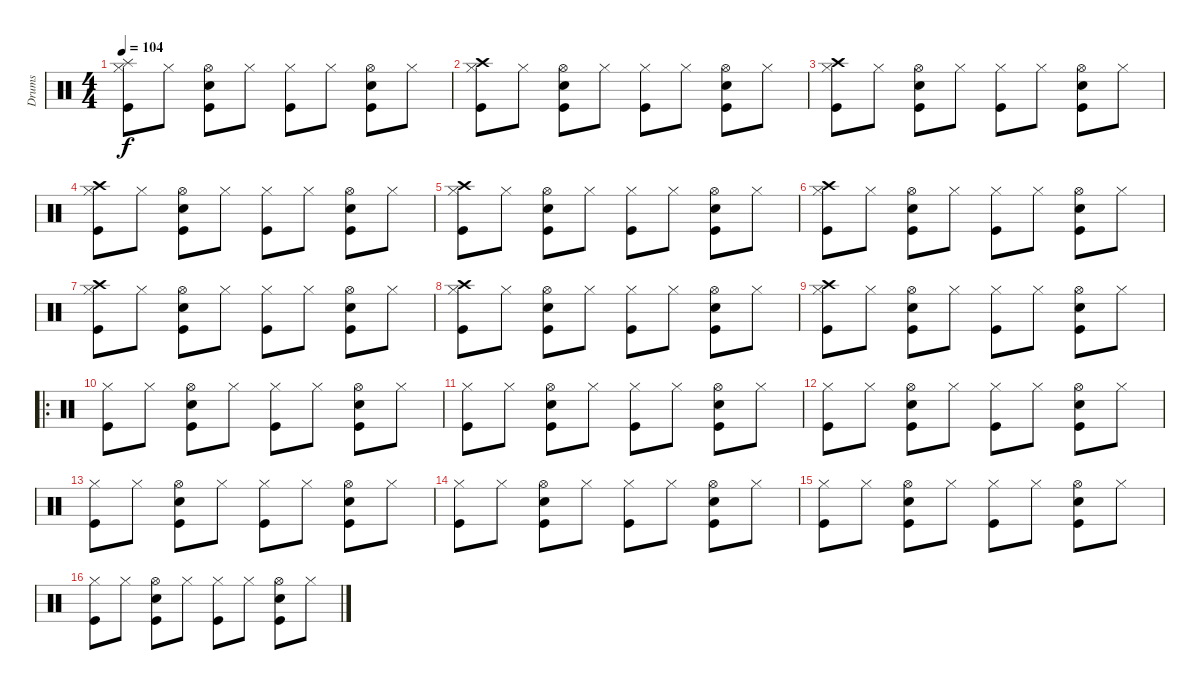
\track ("Drums" "Drums") {instrument percussion}
\staff {score}
\articulation defaults
\ts (4 4)
\tempo 104
\clef neutral
\ks c
("Splash (hit)" "Hi-Hat (closed)" "Kick (hit)").8{dy f} "Hi-Hat (closed)".8 ("Snare (hit) 2" "Hi-Hat (open)" "Kick (hit)").8 "Hi-Hat (closed)".8 ("Hi-Hat (closed)" "Kick (hit)").8 "Hi-Hat (closed)".8 ("Snare (hit) 2" "Hi-Hat (open)" "Kick (hit)").8 "Hi-Hat (closed)".8 |
("Crash high (hit)" "Hi-Hat (closed)" "Kick (hit)").8 "Hi-Hat (closed)".8 ("Snare (hit) 2" "Hi-Hat (open)" "Kick (hit)").8 "Hi-Hat (closed)".8 ("Hi-Hat (closed)" "Kick (hit)").8 "Hi-Hat (closed)".8 ("Snare (hit) 2" "Hi-Hat (open)" "Kick (hit)").8 "Hi-Hat (closed)".8 |
("Crash high (hit)" "Hi-Hat (closed)" "Kick (hit)").8 "Hi-Hat (closed)".8 ("Snare (hit) 2" "Hi-Hat (open)" "Kick (hit)").8 "Hi-Hat (closed)".8 ("Hi-Hat (closed)" "Kick (hit)").8 "Hi-Hat (closed)".8 ("Snare (hit) 2" "Hi-Hat (open)" "Kick (hit)").8 "Hi-Hat (closed)".8 |
("Crash high (hit)" "Hi-Hat (closed)" "Kick (hit)").8 "Hi-Hat (closed)".8 ("Snare (hit) 2" "Hi-Hat (open)" "Kick (hit)").8 "Hi-Hat (closed)".8 ("Hi-Hat (closed)" "Kick (hit)").8 "Hi-Hat (closed)".8 ("Snare (hit) 2" "Hi-Hat (open)" "Kick (hit)").8 "Hi-Hat (closed)".8 |
("Crash high (hit)" "Hi-Hat (closed)" "Kick (hit)").8 "Hi-Hat (closed)".8 ("Snare (hit) 2" "Hi-Hat (open)" "Kick (hit)").8 "Hi-Hat (closed)".8 ("Hi-Hat (closed)" "Kick (hit)").8 "Hi-Hat (closed)".8 ("Snare (hit) 2" "Hi-Hat (open)" "Kick (hit)").8 "Hi-Hat (closed)".8 |
("Crash high (hit)" "Hi-Hat (closed)" "Kick (hit)").8 "Hi-Hat (closed)".8 ("Snare (hit) 2" "Hi-Hat (open)" "Kick (hit)").8 "Hi-Hat (closed)".8 ("Hi-Hat (closed)" "Kick (hit)").8 "Hi-Hat (closed)".8 ("Snare (hit) 2" "Hi-Hat (open)" "Kick (hit)").8 "Hi-Hat (closed)".8 |
("Crash high (hit)" "Hi-Hat (closed)" "Kick (hit)").8 "Hi-Hat (closed)".8 ("Snare (hit) 2" "Hi-Hat (open)" "Kick (hit)").8 "Hi-Hat (closed)".8 ("Hi-Hat (closed)" "Kick (hit)").8 "Hi-Hat (closed)".8 ("Snare (hit) 2" "Hi-Hat (open)" "Kick (hit)").8 "Hi-Hat (closed)".8 |
("Crash high (hit)" "Hi-Hat (closed)" "Kick (hit)").8 "Hi-Hat (closed)".8 ("Snare (hit) 2" "Hi-Hat (open)" "Kick (hit)").8 "Hi-Hat (closed)".8 ("Hi-Hat (closed)" "Kick (hit)").8 "Hi-Hat (closed)".8 ("Snare (hit) 2" "Hi-Hat (open)" "Kick (hit)").8 "Hi-Hat (closed)".8 |
("Crash high (hit)" "Hi-Hat (closed)" "Kick (hit)").8 "Hi-Hat (closed)".8 ("Snare (hit) 2" "Hi-Hat (open)" "Kick (hit)").8 "Hi-Hat (closed)".8 ("Hi-Hat (closed)" "Kick (hit)").8 "Hi-Hat (closed)".8 ("Snare (hit) 2" "Hi-Hat (open)" "Kick (hit)").8 "Hi-Hat (closed)".8 |
\ro
("Hi-Hat (closed)" "Kick (hit)").8 "Hi-Hat (closed)".8 ("Snare (hit) 2" "Hi-Hat (open)" "Kick (hit)").8 "Hi-Hat (closed)".8 ("Hi-Hat (closed)" "Kick (hit)").8 "Hi-Hat (closed)".8 ("Snare (hit) 2" "Hi-Hat (open)" "Kick (hit)").8 "Hi-Hat (closed)".8 |
("Hi-Hat (closed)" "Kick (hit)").8 "Hi-Hat (closed)".8 ("Snare (hit) 2" "Hi-Hat (open)" "Kick (hit)").8 "Hi-Hat (closed)".8 ("Hi-Hat (closed)" "Kick (hit)").8 "Hi-Hat (closed)".8 ("Snare (hit) 2" "Hi-Hat (open)" "Kick (hit)").8 "Hi-Hat (closed)".8 |
("Hi-Hat (closed)" "Kick (hit)").8 "Hi-Hat (closed)".8 ("Snare (hit) 2" "Hi-Hat (open)" "Kick (hit)").8 "Hi-Hat (closed)".8 ("Hi-Hat (closed)" "Kick (hit)").8 "Hi-Hat (closed)".8 ("Snare (hit) 2" "Hi-Hat (open)" "Kick (hit)").8 "Hi-Hat (closed)".8 |
("Hi-Hat (closed)" "Kick (hit)").8 "Hi-Hat (closed)".8 ("Snare (hit) 2" "Hi-Hat (open)" "Kick (hit)").8 "Hi-Hat (closed)".8 ("Hi-Hat (closed)" "Kick (hit)").8 "Hi-Hat (closed)".8 ("Snare (hit) 2" "Hi-Hat (open)" "Kick (hit)").8 "Hi-Hat (closed)".8 |
("Hi-Hat (closed)" "Kick (hit)").8 "Hi-Hat (closed)".8 ("Snare (hit) 2" "Hi-Hat (open)" "Kick (hit)").8 "Hi-Hat (closed)".8 ("Hi-Hat (closed)" "Kick (hit)").8 "Hi-Hat (closed)".8 ("Snare (hit) 2" "Hi-Hat (open)" "Kick (hit)").8 "Hi-Hat (closed)".8 |
("Hi-Hat (closed)" "Kick (hit)").8 "Hi-Hat (closed)".8 ("Snare (hit) 2" "Hi-Hat (open)" "Kick (hit)").8 "Hi-Hat (closed)".8 ("Hi-Hat (closed)" "Kick (hit)").8 "Hi-Hat (closed)".8 ("Snare (hit) 2" "Hi-Hat (open)" "Kick (hit)").8 "Hi-Hat (closed)".8 |
("Hi-Hat (closed)" "Kick (hit)").8 "Hi-Hat (closed)".8 ("Snare (hit) 2" "Hi-Hat (open)" "Kick (hit)").8 "Hi-Hat (closed)".8 ("Hi-Hat (closed)" "Kick (hit)").8 "Hi-Hat (closed)".8 ("Snare (hit) 2" "Hi-Hat (open)" "Kick (hit)").8 "Hi-Hat (closed)".8
